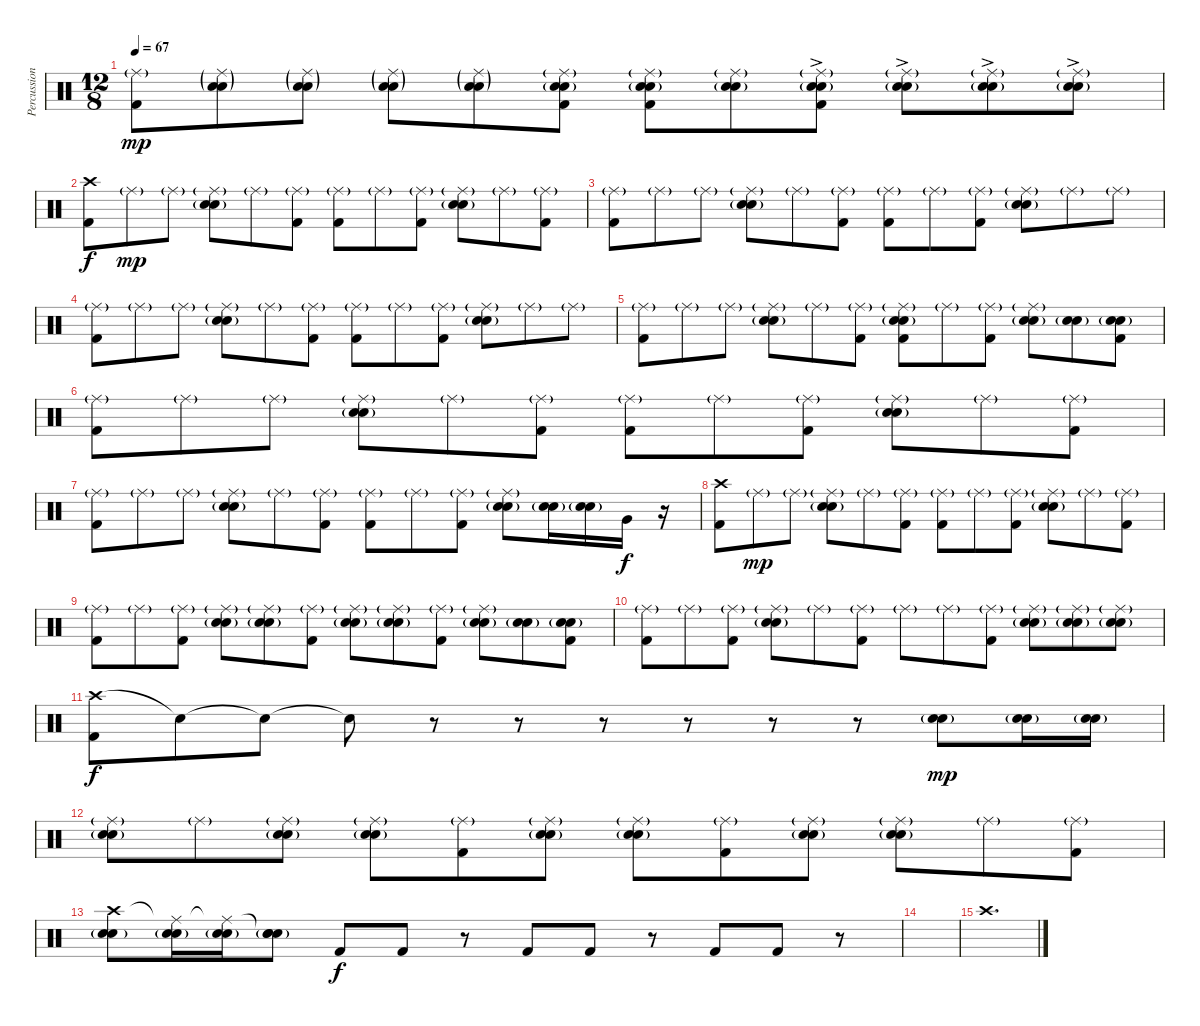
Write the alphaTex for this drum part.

\track ("Percussion" "Percussion") {instrument percussion}
\staff {score}
\articulation defaults
\ts (12 8)
\tempo 67
\clef neutral
\ks c
("Ride (middle)"{g} "Kick (hit) 2").8{dy mp} ("Ride (middle)"{g} "Electric Snare (hit)"{g} "Snare (hit) 2"{g}).8 ("Ride (middle)"{g} "Electric Snare (hit)"{g} "Snare (hit) 2"{g}).8 ("Ride (middle)"{g} "Electric Snare (hit)"{g} "Snare (hit) 2"{g}).8 ("Ride (middle)"{g} "Electric Snare (hit)"{g} "Snare (hit) 2"{g}).8 ("Ride (middle)"{g} "Electric Snare (hit)" "Snare (hit) 2"{g} "Kick (hit) 2").8 ("Ride (middle)"{g} "Electric Snare (hit)" "Snare (hit) 2"{g} "Kick (hit) 2").8 ("Ride (middle)"{g} "Electric Snare (hit)" "Snare (hit) 2"{g}).8 ("Ride (middle)"{g} "Electric Snare (hit)"{ac} "Snare (hit) 2"{g} "Kick (hit) 2").8 ("Ride (middle)"{g} "Electric Snare (hit)"{ac} "Snare (hit) 2"{g}).8 ("Ride (middle)"{g} "Electric Snare (hit)"{ac} "Snare (hit) 2"{g}).8 ("Ride (middle)"{g} "Electric Snare (hit)"{ac} "Snare (hit) 2"{g}).8 |
("Crash high (hit)" "Kick (hit) 2").8{dy f} "Ride (middle)"{g}.8{dy mp} "Ride (middle)"{g}.8 ("Ride (middle)"{g} "Electric Snare (hit)" "Snare (hit) 2"{g}).8 "Ride (middle)"{g}.8 ("Ride (middle)"{g} "Kick (hit) 2").8 ("Ride (middle)"{g} "Kick (hit) 2").8 "Ride (middle)"{g}.8 ("Ride (middle)"{g} "Kick (hit) 2").8 ("Ride (middle)"{g} "Electric Snare (hit)" "Snare (hit) 2"{g}).8 "Ride (middle)"{g}.8 ("Ride (middle)"{g} "Kick (hit) 2").8 |
("Ride (middle)"{g} "Kick (hit) 2").8 "Ride (middle)"{g}.8 "Ride (middle)"{g}.8 ("Ride (middle)"{g} "Electric Snare (hit)" "Snare (hit) 2"{g}).8 "Ride (middle)"{g}.8 ("Ride (middle)"{g} "Kick (hit) 2").8 ("Ride (middle)"{g} "Kick (hit) 2").8 "Ride (middle)"{g}.8 ("Ride (middle)"{g} "Kick (hit) 2").8 ("Ride (middle)"{g} "Electric Snare (hit)" "Snare (hit) 2"{g}).8 "Ride (middle)"{g}.8 "Ride (middle)"{g}.8 |
("Ride (middle)"{g} "Kick (hit) 2").8 "Ride (middle)"{g}.8 "Ride (middle)"{g}.8 ("Ride (middle)"{g} "Electric Snare (hit)" "Snare (hit) 2"{g}).8 "Ride (middle)"{g}.8 ("Ride (middle)"{g} "Kick (hit) 2").8 ("Ride (middle)"{g} "Kick (hit) 2").8 "Ride (middle)"{g}.8 ("Ride (middle)"{g} "Kick (hit) 2").8 ("Ride (middle)"{g} "Electric Snare (hit)" "Snare (hit) 2"{g}).8 "Ride (middle)"{g}.8 "Ride (middle)"{g}.8 |
("Ride (middle)"{g} "Kick (hit) 2").8 "Ride (middle)"{g}.8 "Ride (middle)"{g}.8 ("Ride (middle)"{g} "Electric Snare (hit)" "Snare (hit) 2"{g}).8 "Ride (middle)"{g}.8 ("Ride (middle)"{g} "Kick (hit) 2").8 ("Ride (middle)"{g} "Electric Snare (hit)" "Snare (hit) 2"{g} "Kick (hit) 2").8 "Ride (middle)"{g}.8 ("Ride (middle)"{g} "Kick (hit) 2").8 ("Ride (middle)"{g} "Electric Snare (hit)" "Snare (hit) 2"{g}).8 ("Electric Snare (hit)" "Snare (hit) 2"{g}).8 ("Electric Snare (hit)" "Snare (hit) 2"{g} "Kick (hit) 2").8 |
("Ride (middle)"{g} "Kick (hit) 2").8 "Ride (middle)"{g}.8 "Ride (middle)"{g}.8 ("Ride (middle)"{g} "Electric Snare (hit)" "Snare (hit) 2"{g}).8 "Ride (middle)"{g}.8 ("Ride (middle)"{g} "Kick (hit) 2").8 ("Ride (middle)"{g} "Kick (hit) 2").8 "Ride (middle)"{g}.8 ("Ride (middle)"{g} "Kick (hit) 2").8 ("Ride (middle)"{g} "Electric Snare (hit)" "Snare (hit) 2"{g}).8 "Ride (middle)"{g}.8 ("Ride (middle)"{g} "Kick (hit) 2").8 |
("Ride (middle)"{g} "Kick (hit) 2").8 "Ride (middle)"{g}.8 "Ride (middle)"{g}.8 ("Ride (middle)"{g} "Electric Snare (hit)" "Snare (hit) 2"{g}).8 "Ride (middle)"{g}.8 ("Ride (middle)"{g} "Kick (hit) 2").8 ("Ride (middle)"{g} "Kick (hit) 2").8 "Ride (middle)"{g}.8 ("Ride (middle)"{g} "Kick (hit) 2").8 ("Ride (middle)"{g} "Electric Snare (hit)" "Snare (hit) 2"{g}).8 ("Electric Snare (hit)" "Snare (hit) 2"{g}).16 ("Electric Snare (hit)"{g} "Snare (hit) 2"{g}).16 "Very Low Tom (hit)".16{dy f} r.16 |
("Crash high (hit)" "Kick (hit) 2").8 "Ride (middle)"{g}.8{dy mp} "Ride (middle)"{g}.8 ("Ride (middle)"{g} "Electric Snare (hit)" "Snare (hit) 2"{g}).8 "Ride (middle)"{g}.8 ("Ride (middle)"{g} "Kick (hit) 2").8 ("Ride (middle)"{g} "Kick (hit) 2").8 "Ride (middle)"{g}.8 ("Ride (middle)"{g} "Kick (hit) 2").8 ("Ride (middle)"{g} "Electric Snare (hit)" "Snare (hit) 2"{g}).8 "Ride (middle)"{g}.8 ("Ride (middle)"{g} "Kick (hit) 2").8 |
("Ride (middle)"{g} "Kick (hit) 2").8 "Ride (middle)"{g}.8 ("Ride (middle)"{g} "Kick (hit) 2").8 ("Ride (middle)"{g} "Electric Snare (hit)" "Snare (hit) 2"{g}).8 ("Ride (middle)"{g} "Electric Snare (hit)" "Snare (hit) 2"{g}).8 ("Ride (middle)"{g} "Kick (hit) 2").8 ("Ride (middle)"{g} "Electric Snare (hit)" "Snare (hit) 2"{g}).8 ("Ride (middle)"{g} "Electric Snare (hit)" "Snare (hit) 2"{g}).8 ("Ride (middle)"{g} "Kick (hit) 2").8 ("Ride (middle)"{g} "Electric Snare (hit)" "Snare (hit) 2"{g}).8 ("Electric Snare (hit)"{g} "Snare (hit) 2"{g}).8 ("Electric Snare (hit)" "Snare (hit) 2"{g} "Kick (hit) 2").8 |
("Ride (middle)"{g} "Kick (hit) 2").8 "Ride (middle)"{g}.8 ("Ride (middle)"{g} "Kick (hit) 2").8 ("Ride (middle)"{g} "Electric Snare (hit)" "Snare (hit) 2"{g}).8 "Ride (middle)"{g}.8 ("Ride (middle)"{g} "Kick (hit) 2").8 "Ride (middle)"{g}.8 "Ride (middle)"{g}.8 ("Ride (middle)"{g} "Kick (hit) 2").8 ("Ride (middle)"{g} "Electric Snare (hit)" "Snare (hit) 2"{g}).8 ("Ride (middle)"{g} "Electric Snare (hit)" "Snare (hit) 2"{g}).8 ("Ride (middle)"{g} "Electric Snare (hit)" "Snare (hit) 2"{g}).8 |
("Crash high (hit)" "Kick (hit) 2").8{dy f} "Snare (hit)"{t}.8 "Snare (hit)"{t}.8 "Snare (hit)"{t}.8 r.8 r.8 r.8 r.8 r.8 r.8 ("Electric Snare (hit)" "Snare (hit) 2"{g}).8{dy mp} ("Electric Snare (hit)"{g} "Snare (hit) 2"{g}).16 ("Electric Snare (hit)" "Snare (hit) 2"{g}).16 |
("Ride (middle)"{g} "Electric Snare (hit)" "Snare (hit) 2"{g}).8 "Ride (middle)"{g}.8 ("Ride (middle)"{g} "Electric Snare (hit)" "Snare (hit) 2"{g}).8 ("Ride (middle)"{g} "Electric Snare (hit)" "Snare (hit) 2"{g}).8 ("Ride (middle)"{g} "Kick (hit) 2").8 ("Ride (middle)"{g} "Electric Snare (hit)" "Snare (hit) 2"{g}).8 ("Ride (middle)"{g} "Electric Snare (hit)" "Snare (hit) 2"{g}).8 ("Ride (middle)"{g} "Kick (hit) 2").8 ("Ride (middle)"{g} "Electric Snare (hit)" "Snare (hit) 2"{g}).8 ("Ride (middle)"{g} "Electric Snare (hit)" "Snare (hit) 2"{g}).8 "Ride (middle)"{g}.8 ("Ride (middle)"{g} "Kick (hit) 2").8 |
("Crash high (hit)" "Electric Snare (hit)" "Snare (hit) 2"{g}).8 ("Ride (middle)"{t} "Electric Snare (hit)" "Snare (hit) 2"{g}).16 ("Ride (middle)"{t} "Electric Snare (hit)"{g} "Snare (hit) 2"{g}).16 ("Snare (hit)"{t} "Electric Snare (hit)" "Snare (hit) 2"{g}).8 "Kick (hit) 2".8{dy f} "Kick (hit) 2".8 r.8 "Kick (hit) 2".8 "Kick (hit) 2".8 r.8 "Kick (hit) 2".8 "Kick (hit) 2".8 r.8 |
|
"Crash high (hit)".1{d}
